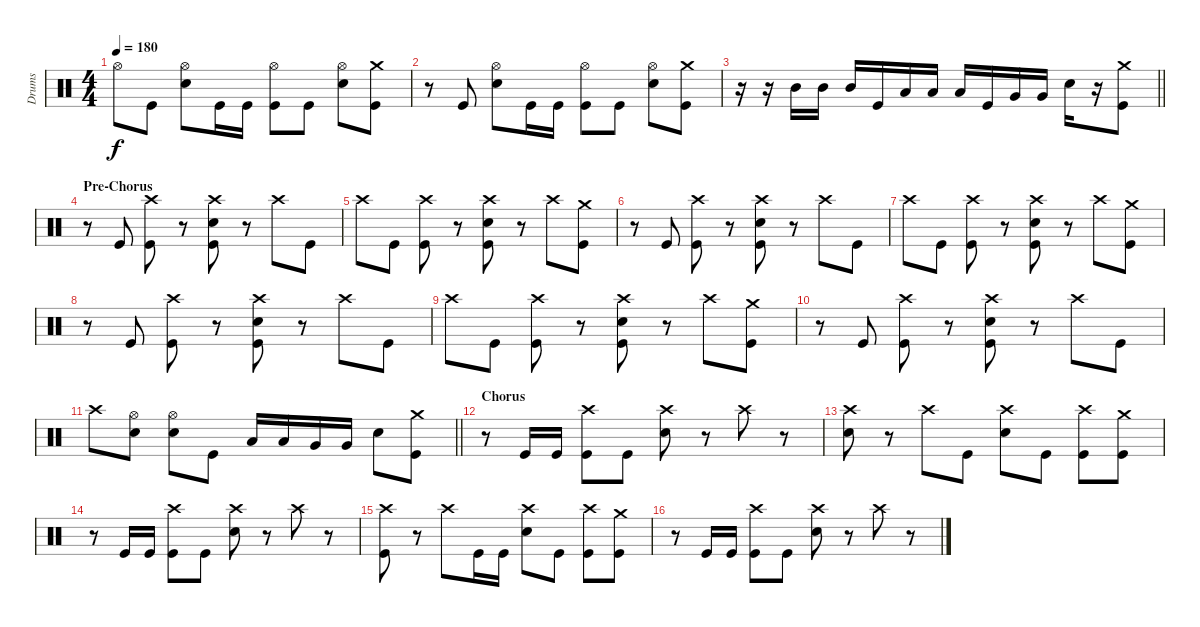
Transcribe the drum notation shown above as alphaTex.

\track ("Drums" "Drums") {instrument percussion}
\staff {score}
\articulation defaults
\ts (4 4)
\tempo 180
\clef neutral
\ks c "Hi-Hat (open)".8{dy f} "Kick (hit)".8
("Hi-Hat (open)" "Electric Snare (hit)").8 "Kick (hit)".16 "Kick (hit)".16 ("Hi-Hat (open)" "Kick (hit)").8 "Kick (hit)".8 ("Hi-Hat (open)" "Electric Snare (hit)").8 ("Crash medium (hit)" "Kick (hit)").8 |
r.8 "Kick (hit)".8 ("Hi-Hat (open)" "Electric Snare (hit)").8 "Kick (hit)".16 "Kick (hit)".16 ("Hi-Hat (open)" "Kick (hit)").8 "Kick (hit)".8 ("Hi-Hat (open)" "Electric Snare (hit)").8 ("Crash medium (hit)" "Kick (hit)").8 |
\barLineRight lightlight
r.16 r.16 "Mid Tom (hit)".16 "Mid Tom (hit)".16 "Mid Tom (hit)".16 "Kick (hit)".16 "Low Tom (hit)".16 "Low Tom (hit)".16 "Low Tom (hit)".16 "Kick (hit)".16 "Very Low Tom (hit)".16 "Very Low Tom (hit)".16 "Electric Snare (hit)".16 r.16 ("Crash medium (hit)" "Kick (hit)").8 |
\section ("" "Pre-Chorus")
r.8 "Kick (hit)".8 ("Crash high (hit)" "Kick (hit)").8 r.8 ("Crash high (hit)" "Electric Snare (hit)" "Kick (hit)").8 r.8 "Crash high (hit)".8 "Kick (hit)".8 |
"Crash high (hit)".8 "Kick (hit)".8 ("Crash high (hit)" "Kick (hit)").8 r.8 ("Crash high (hit)" "Electric Snare (hit)" "Kick (hit)").8 r.8 "Crash high (hit)".8 ("Crash medium (hit)" "Kick (hit)").8 |
r.8 "Kick (hit)".8 ("Crash high (hit)" "Kick (hit)").8 r.8 ("Crash high (hit)" "Electric Snare (hit)" "Kick (hit)").8 r.8 "Crash high (hit)".8 "Kick (hit)".8 |
"Crash high (hit)".8 "Kick (hit)".8 ("Crash high (hit)" "Kick (hit)").8 r.8 ("Crash high (hit)" "Electric Snare (hit)" "Kick (hit)").8 r.8 "Crash high (hit)".8 ("Crash medium (hit)" "Kick (hit)").8 |
r.8 "Kick (hit)".8 ("Crash high (hit)" "Kick (hit)").8 r.8 ("Crash high (hit)" "Electric Snare (hit)" "Kick (hit)").8 r.8 "Crash high (hit)".8 "Kick (hit)".8 |
"Crash high (hit)".8 "Kick (hit)".8 ("Crash high (hit)" "Kick (hit)").8 r.8 ("Crash high (hit)" "Electric Snare (hit)" "Kick (hit)").8 r.8 "Crash high (hit)".8 ("Crash medium (hit)" "Kick (hit)").8 |
r.8 "Kick (hit)".8 ("Crash high (hit)" "Kick (hit)").8 r.8 ("Crash high (hit)" "Electric Snare (hit)" "Kick (hit)").8 r.8 "Crash high (hit)".8 "Kick (hit)".8 |
\barLineRight lightlight "Crash high (hit)".8
("Hi-Hat (open)" "Electric Snare (hit)").8 ("Hi-Hat (open)" "Electric Snare (hit)").8 "Kick (hit)".8 "Low Tom (hit)".16 "Low Tom (hit)".16 "Very Low Tom (hit)".16 "Very Low Tom (hit)".16 "Electric Snare (hit)".8 ("Crash medium (hit)" "Kick (hit)").8 |
\section ("" "Chorus")
r.8 "Kick (hit)".16 "Kick (hit)".16 ("Crash high (hit)" "Kick (hit)").8 "Kick (hit)".8 ("Crash high (hit)" "Electric Snare (hit)").8 r.8 "Crash high (hit)".8 r.8 |
("Crash high (hit)" "Electric Snare (hit)").8 r.8 "Crash high (hit)".8 "Kick (hit)".8 ("Crash high (hit)" "Electric Snare (hit)").8 "Kick (hit)".8 ("Crash high (hit)" "Kick (hit)").8 ("Crash medium (hit)" "Kick (hit)").8 |
r.8 "Kick (hit)".16 "Kick (hit)".16 ("Crash high (hit)" "Kick (hit)").8 "Kick (hit)".8 ("Crash high (hit)" "Electric Snare (hit)").8 r.8 "Crash high (hit)".8 r.8 |
("Crash high (hit)" "Kick (hit)").8 r.8 "Crash high (hit)".8 "Kick (hit)".16 "Kick (hit)".16 ("Crash high (hit)" "Electric Snare (hit)").8 "Kick (hit)".8 ("Crash high (hit)" "Kick (hit)").8 ("Crash medium (hit)" "Kick (hit)").8 |
r.8 "Kick (hit)".16 "Kick (hit)".16 ("Crash high (hit)" "Kick (hit)").8 "Kick (hit)".8 ("Crash high (hit)" "Electric Snare (hit)").8 r.8 "Crash high (hit)".8 r.8
